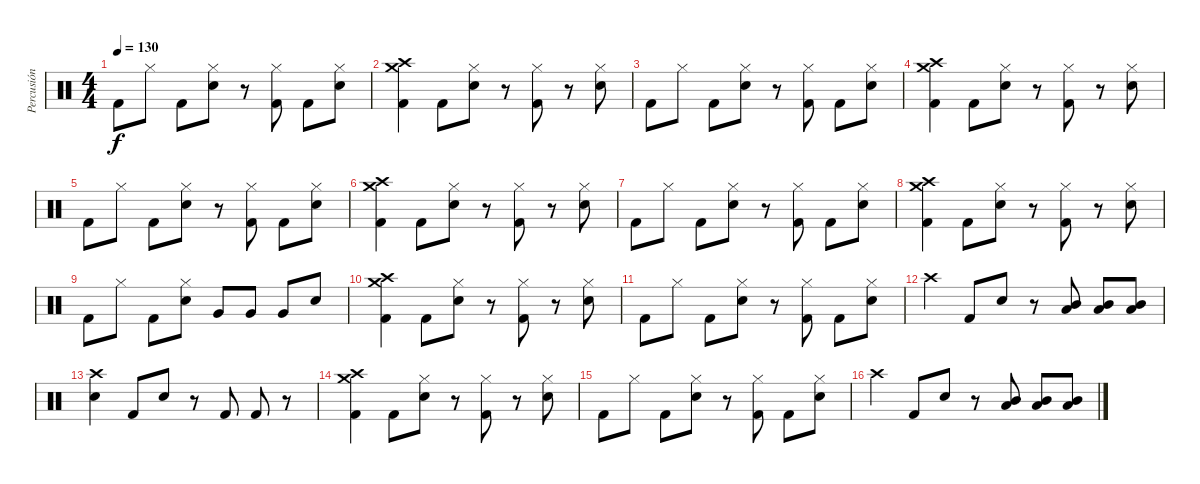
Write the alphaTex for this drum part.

\track ("Percusión" "Percusión") {instrument percussion}
\staff {score}
\articulation defaults
\ts (4 4)
\tempo 130
\clef neutral
\ks c "Kick (hit) 2".8{dy f} "Hi-Hat (closed)".8 "Kick (hit) 2".8
("Snare (hit) 2" "Hi-Hat (closed)").8 r.8 ("Kick (hit) 2" "Hi-Hat (closed)").8 "Kick (hit) 2".8 ("Snare (hit) 2" "Hi-Hat (closed)").8 |
("Crash high (hit)" "Crash medium (hit)" "Kick (hit) 2").4 "Kick (hit) 2".8 ("Snare (hit) 2" "Hi-Hat (closed)").8 r.8 ("Kick (hit) 2" "Hi-Hat (closed)").8 r.8 ("Snare (hit) 2" "Hi-Hat (closed)").8 |
"Kick (hit) 2".8 "Hi-Hat (closed)".8 "Kick (hit) 2".8 ("Snare (hit) 2" "Hi-Hat (closed)").8 r.8 ("Kick (hit) 2" "Hi-Hat (closed)").8 "Kick (hit) 2".8 ("Snare (hit) 2" "Hi-Hat (closed)").8 |
("Crash high (hit)" "Crash medium (hit)" "Kick (hit) 2").4 "Kick (hit) 2".8 ("Snare (hit) 2" "Hi-Hat (closed)").8 r.8 ("Kick (hit) 2" "Hi-Hat (closed)").8 r.8 ("Snare (hit) 2" "Hi-Hat (closed)").8 |
"Kick (hit) 2".8 "Hi-Hat (closed)".8 "Kick (hit) 2".8 ("Snare (hit) 2" "Hi-Hat (closed)").8 r.8 ("Kick (hit) 2" "Hi-Hat (closed)").8 "Kick (hit) 2".8 ("Snare (hit) 2" "Hi-Hat (closed)").8 |
("Crash high (hit)" "Crash medium (hit)" "Kick (hit) 2").4 "Kick (hit) 2".8 ("Snare (hit) 2" "Hi-Hat (closed)").8 r.8 ("Kick (hit) 2" "Hi-Hat (closed)").8 r.8 ("Snare (hit) 2" "Hi-Hat (closed)").8 |
"Kick (hit) 2".8 "Hi-Hat (closed)".8 "Kick (hit) 2".8 ("Snare (hit) 2" "Hi-Hat (closed)").8 r.8 ("Kick (hit) 2" "Hi-Hat (closed)").8 "Kick (hit) 2".8 ("Snare (hit) 2" "Hi-Hat (closed)").8 |
("Crash high (hit)" "Crash medium (hit)" "Kick (hit) 2").4 "Kick (hit) 2".8 ("Snare (hit) 2" "Hi-Hat (closed)").8 r.8 ("Kick (hit) 2" "Hi-Hat (closed)").8 r.8 ("Snare (hit) 2" "Hi-Hat (closed)").8 |
"Kick (hit) 2".8 "Hi-Hat (closed)".8 "Kick (hit) 2".8 ("Snare (hit) 2" "Hi-Hat (closed)").8 "Very Low Tom (hit)".8 "Very Low Tom (hit)".8 "Very Low Tom (hit)".8 "Snare (hit) 2".8 |
("Crash high (hit)" "Crash medium (hit)" "Kick (hit) 2").4 "Kick (hit) 2".8 ("Snare (hit) 2" "Hi-Hat (closed)").8 r.8 ("Kick (hit) 2" "Hi-Hat (closed)").8 r.8 ("Snare (hit) 2" "Hi-Hat (closed)").8 |
"Kick (hit) 2".8 "Hi-Hat (closed)".8 "Kick (hit) 2".8 ("Snare (hit) 2" "Hi-Hat (closed)").8 r.8 ("Kick (hit) 2" "Hi-Hat (closed)").8 "Kick (hit) 2".8 ("Snare (hit) 2" "Hi-Hat (closed)").8 |
"Crash high (hit)".4 "Kick (hit) 2".8 "Snare (hit) 2".8 r.8 ("Low Tom (hit)" "Mid Tom (hit)").8 ("Low Tom (hit)" "Mid Tom (hit)").8 ("Low Tom (hit)" "Mid Tom (hit)").8 |
("Electric Snare (hit)" "Crash high (hit)").4 "Kick (hit) 2".8 "Snare (hit) 2".8 r.8 "Kick (hit) 2".8 "Kick (hit) 2".8 r.8 |
("Crash high (hit)" "Crash medium (hit)" "Kick (hit) 2").4 "Kick (hit) 2".8 ("Snare (hit) 2" "Hi-Hat (closed)").8 r.8 ("Kick (hit) 2" "Hi-Hat (closed)").8 r.8 ("Snare (hit) 2" "Hi-Hat (closed)").8 |
"Kick (hit) 2".8 "Hi-Hat (closed)".8 "Kick (hit) 2".8 ("Snare (hit) 2" "Hi-Hat (closed)").8 r.8 ("Kick (hit) 2" "Hi-Hat (closed)").8 "Kick (hit) 2".8 ("Snare (hit) 2" "Hi-Hat (closed)").8 |
"Crash high (hit)".4 "Kick (hit) 2".8 "Snare (hit) 2".8 r.8 ("Low Tom (hit)" "Mid Tom (hit)").8 ("Low Tom (hit)" "Mid Tom (hit)").8 ("Low Tom (hit)" "Mid Tom (hit)").8
